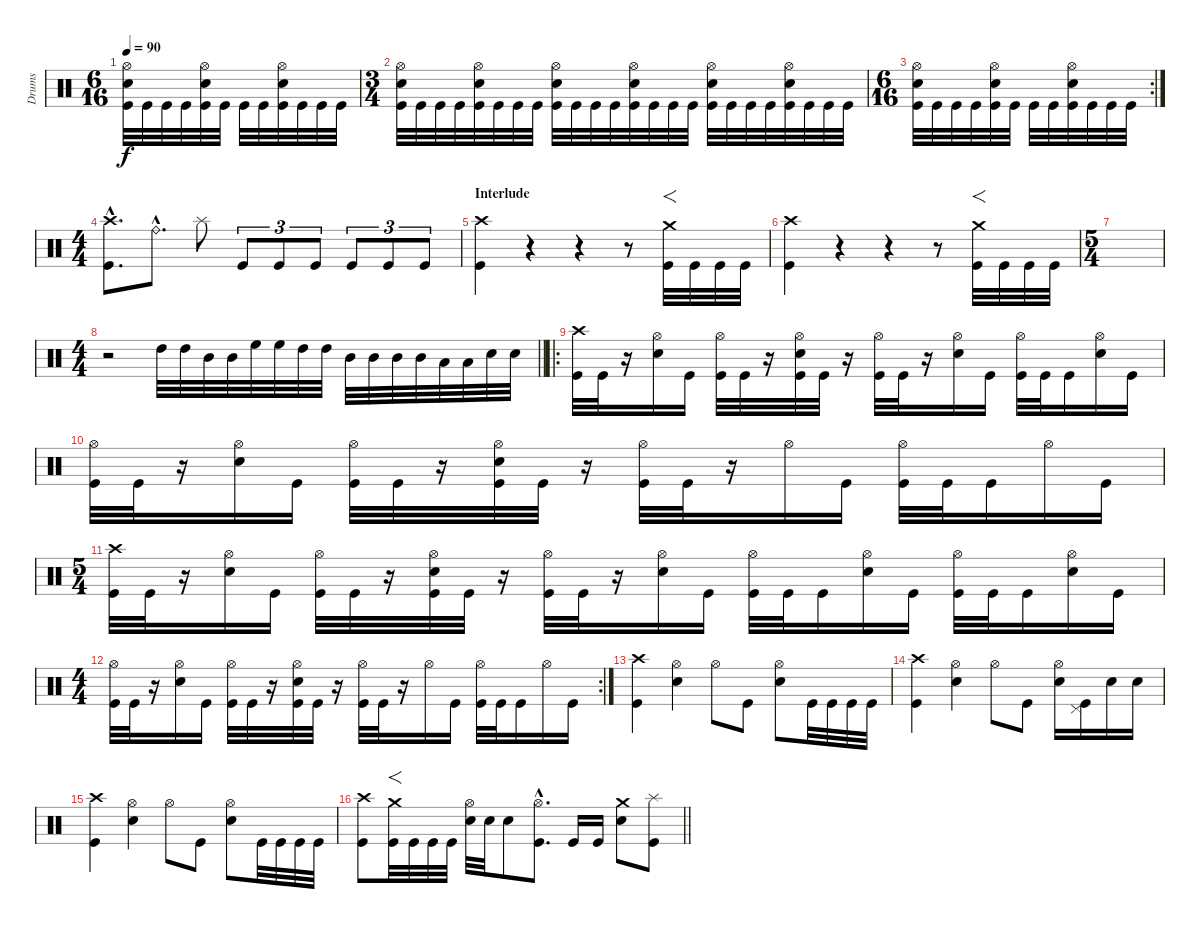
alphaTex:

\track ("Drums" "Drums") {instrument percussion}
\staff {score}
\articulation defaults
\ts (6 16)
\tempo 90
\clef neutral
\ks c
("Hi-Hat (open)" "Electric Snare (hit)" "Kick (hit)").32{dy f} "Kick (hit)".32 "Kick (hit)".32 "Kick (hit)".32 ("Hi-Hat (open)" "Electric Snare (hit)" "Kick (hit)").32 "Kick (hit)".32 "Kick (hit)".32 "Kick (hit)".32 ("Hi-Hat (open)" "Electric Snare (hit)" "Kick (hit)").32 "Kick (hit)".32 "Kick (hit)".32 "Kick (hit)".32 |
\ts (3 4)
("Hi-Hat (open)" "Electric Snare (hit)" "Kick (hit)").32 "Kick (hit)".32 "Kick (hit)".32 "Kick (hit)".32 ("Hi-Hat (open)" "Electric Snare (hit)" "Kick (hit)").32 "Kick (hit)".32 "Kick (hit)".32 "Kick (hit)".32 ("Hi-Hat (open)" "Electric Snare (hit)" "Kick (hit)").32 "Kick (hit)".32 "Kick (hit)".32 "Kick (hit)".32 ("Hi-Hat (open)" "Electric Snare (hit)" "Kick (hit)").32 "Kick (hit)".32 "Kick (hit)".32 "Kick (hit)".32 ("Hi-Hat (open)" "Electric Snare (hit)" "Kick (hit)").32 "Kick (hit)".32 "Kick (hit)".32 "Kick (hit)".32 ("Hi-Hat (open)" "Electric Snare (hit)" "Kick (hit)").32 "Kick (hit)".32 "Kick (hit)".32 "Kick (hit)".32 |
\rc 2
\ts (6 16)
("Hi-Hat (open)" "Electric Snare (hit)" "Kick (hit)").32 "Kick (hit)".32 "Kick (hit)".32 "Kick (hit)".32 ("Hi-Hat (open)" "Electric Snare (hit)" "Kick (hit)").32 "Kick (hit)".32 "Kick (hit)".32 "Kick (hit)".32 ("Hi-Hat (open)" "Electric Snare (hit)" "Kick (hit)").32 "Kick (hit)".32 "Kick (hit)".32 "Kick (hit)".32 |
\ts (4 4)
("Crash high (hit)"{hac} "Kick (hit)"{hac}).8{d} "Ride (bell)"{hac}.8{d} "Splash (hit)".8 "Kick (hit)".8{tu (3 2)} "Kick (hit)".8{tu (3 2)} "Kick (hit)".8{tu (3 2)} "Kick (hit)".8{tu (3 2)} "Kick (hit)".8{tu (3 2)} "Kick (hit)".8{tu (3 2)} |
\section ("" "Interlude")
("Crash high (hit)" "Kick (hit)").4 r.4 r.4 r.8 ("Crash medium (hit)" "Kick (hit)").32{f} "Kick (hit)".32 "Kick (hit)".32 "Kick (hit)".32 |
("Crash high (hit)" "Kick (hit)").4 r.4 r.4 r.8 ("Crash medium (hit)" "Kick (hit)").32{f} "Kick (hit)".32 "Kick (hit)".32 "Kick (hit)".32 |
\ts (5 4)
|
\ts (4 4)
\barLineRight lightlight
r.2 "High Tom (hit)".32 "High Tom (hit)".32 "Mid Tom (hit)".32 "Mid Tom (hit)".32 "High Floor Tom (hit)".32 "High Floor Tom (hit)".32 "High Tom (hit)".32 "High Tom (hit)".32 "Mid Tom (hit)".32 "Mid Tom (hit)".32 "Mid Tom (hit)".32 "Mid Tom (hit)".32 "Low Tom (hit)".32 "Low Tom (hit)".32 "Electric Snare (hit)".32 "Electric Snare (hit)".32 |
\ro
("Crash high (hit)" "Kick (hit)").32 "Kick (hit)".32 r.16 ("Hi-Hat (open)" "Electric Snare (hit)").16 "Kick (hit)".16 ("Hi-Hat (open)" "Kick (hit)").32 "Kick (hit)".32 r.16 ("Hi-Hat (open)" "Electric Snare (hit)" "Kick (hit)").32 "Kick (hit)".32 r.16 ("Hi-Hat (open)" "Kick (hit)").32 "Kick (hit)".32 r.16 ("Hi-Hat (open)" "Electric Snare (hit)").16 "Kick (hit)".16 ("Hi-Hat (open)" "Kick (hit)").32 "Kick (hit)".32 "Kick (hit)".16 ("Hi-Hat (open)" "Electric Snare (hit)").16 "Kick (hit)".16 |
("Hi-Hat (open)" "Kick (hit)").32 "Kick (hit)".32 r.16 ("Hi-Hat (open)" "Electric Snare (hit)").16 "Kick (hit)".16 ("Hi-Hat (open)" "Kick (hit)").32 "Kick (hit)".32 r.16 ("Hi-Hat (open)" "Electric Snare (hit)" "Kick (hit)").32 "Kick (hit)".32 r.16 ("Hi-Hat (open)" "Kick (hit)").32 "Kick (hit)".32 r.16 "Hi-Hat (open)".16 "Kick (hit)".16 ("Hi-Hat (open)" "Kick (hit)").32 "Kick (hit)".32 "Kick (hit)".16 "Hi-Hat (open)".16 "Kick (hit)".16 |
\ts (5 4)
("Crash high (hit)" "Kick (hit)").32 "Kick (hit)".32 r.16 ("Hi-Hat (open)" "Electric Snare (hit)").16 "Kick (hit)".16 ("Hi-Hat (open)" "Kick (hit)").32 "Kick (hit)".32 r.16 ("Hi-Hat (open)" "Electric Snare (hit)" "Kick (hit)").32 "Kick (hit)".32 r.16 ("Hi-Hat (open)" "Kick (hit)").32 "Kick (hit)".32 r.16 ("Hi-Hat (open)" "Electric Snare (hit)").16 "Kick (hit)".16 ("Hi-Hat (open)" "Kick (hit)").32 "Kick (hit)".32 "Kick (hit)".16 ("Hi-Hat (open)" "Electric Snare (hit)").16 "Kick (hit)".16 ("Hi-Hat (open)" "Kick (hit)").32 "Kick (hit)".32 "Kick (hit)".16 ("Hi-Hat (open)" "Electric Snare (hit)").16 "Kick (hit)".16 |
\rc 2
\ts (4 4)
("Hi-Hat (open)" "Kick (hit)").32 "Kick (hit)".32 r.16 ("Hi-Hat (open)" "Electric Snare (hit)").16 "Kick (hit)".16 ("Hi-Hat (open)" "Kick (hit)").32 "Kick (hit)".32 r.16 ("Hi-Hat (open)" "Electric Snare (hit)" "Kick (hit)").32 "Kick (hit)".32 r.16 ("Hi-Hat (open)" "Kick (hit)").32 "Kick (hit)".32 r.16 "Hi-Hat (open)".16 "Kick (hit)".16 ("Hi-Hat (open)" "Kick (hit)").32 "Kick (hit)".32 "Kick (hit)".16 "Hi-Hat (open)".16 "Kick (hit)".16 |
("Crash high (hit)" "Kick (hit)").4 ("Hi-Hat (open)" "Electric Snare (hit)").4 "Hi-Hat (open)".8 "Kick (hit)".8 ("Hi-Hat (open)" "Electric Snare (hit)").8 "Kick (hit)".32 "Kick (hit)".32 "Kick (hit)".32 "Kick (hit)".32 |
("Crash high (hit)" "Kick (hit)").4 ("Hi-Hat (open)" "Electric Snare (hit)").4 "Hi-Hat (open)".8 "Kick (hit)".8 ("Hi-Hat (open)" "Electric Snare (hit)").16 ("Pedal Hi-Hat (hit)" "Kick (hit)").16 "Electric Snare (hit)".16 "Electric Snare (hit)".16 |
("Crash high (hit)" "Kick (hit)").4 ("Hi-Hat (open)" "Electric Snare (hit)").4 "Hi-Hat (open)".8 "Kick (hit)".8 ("Hi-Hat (open)" "Electric Snare (hit)").8 "Kick (hit)".32 "Kick (hit)".32 "Kick (hit)".32 "Kick (hit)".32 |
\barLineRight lightlight
("Crash high (hit)" "Kick (hit)").8 ("Crash medium (hit)" "Kick (hit)").32{f} "Kick (hit)".32 "Kick (hit)".32 "Kick (hit)".32 ("Hi-Hat (open)" "Electric Snare (hit)").32 "Electric Snare (hit)".32 "Electric Snare (hit)".8 ("Hi-Hat (open)"{hac} "Kick (hit)"{hac}).8{d} "Kick (hit)".16 "Kick (hit)".16 ("Crash medium (hit)" "Electric Snare (hit)").8 ("Splash (hit)" "Kick (hit)").8
